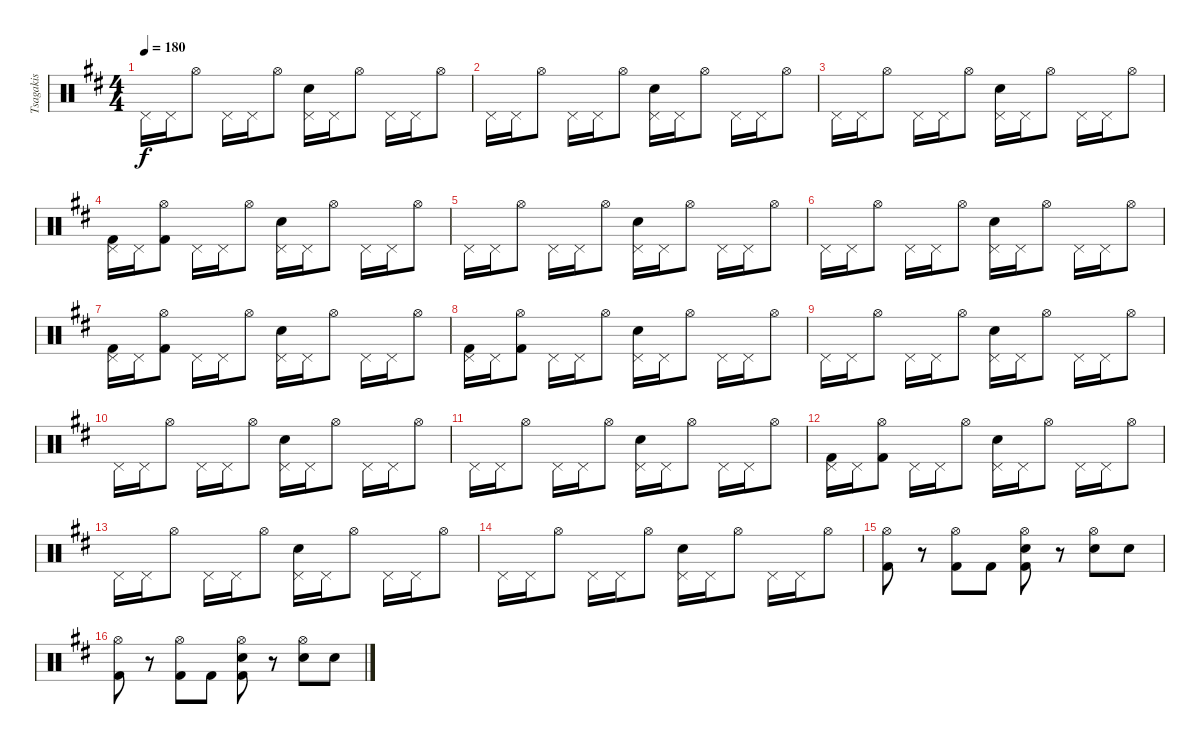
\track ("Tsagakis" "Tsagakis") {instrument percussion}
\staff {score}
\articulation defaults
\ts (4 4)
\tempo 180
\clef neutral
\ks d "Pedal Hi-Hat (hit)".16{dy f} "Pedal Hi-Hat (hit)".16 "Hi-Hat (open)".8 "Pedal Hi-Hat (hit)".16 "Pedal Hi-Hat (hit)".16 "Hi-Hat (open)".8
("Pedal Hi-Hat (hit)" "Electric Snare (hit)").16 "Pedal Hi-Hat (hit)".16 "Hi-Hat (open)".8 "Pedal Hi-Hat (hit)".16 "Pedal Hi-Hat (hit)".16 "Hi-Hat (open)".8 |
"Pedal Hi-Hat (hit)".16 "Pedal Hi-Hat (hit)".16 "Hi-Hat (open)".8 "Pedal Hi-Hat (hit)".16 "Pedal Hi-Hat (hit)".16 "Hi-Hat (open)".8 ("Pedal Hi-Hat (hit)" "Electric Snare (hit)").16 "Pedal Hi-Hat (hit)".16 "Hi-Hat (open)".8 "Pedal Hi-Hat (hit)".16 "Pedal Hi-Hat (hit)".16 "Hi-Hat (open)".8 |
"Pedal Hi-Hat (hit)".16 "Pedal Hi-Hat (hit)".16 "Hi-Hat (open)".8 "Pedal Hi-Hat (hit)".16 "Pedal Hi-Hat (hit)".16 "Hi-Hat (open)".8 ("Pedal Hi-Hat (hit)" "Electric Snare (hit)").16 "Pedal Hi-Hat (hit)".16 "Hi-Hat (open)".8 "Pedal Hi-Hat (hit)".16 "Pedal Hi-Hat (hit)".16 "Hi-Hat (open)".8 |
("Pedal Hi-Hat (hit)" "Kick (hit) 2").16 "Pedal Hi-Hat (hit)".16 ("Hi-Hat (open)" "Kick (hit) 2").8 "Pedal Hi-Hat (hit)".16 "Pedal Hi-Hat (hit)".16 "Hi-Hat (open)".8 ("Pedal Hi-Hat (hit)" "Electric Snare (hit)").16 "Pedal Hi-Hat (hit)".16 "Hi-Hat (open)".8 "Pedal Hi-Hat (hit)".16 "Pedal Hi-Hat (hit)".16 "Hi-Hat (open)".8 |
"Pedal Hi-Hat (hit)".16 "Pedal Hi-Hat (hit)".16 "Hi-Hat (open)".8 "Pedal Hi-Hat (hit)".16 "Pedal Hi-Hat (hit)".16 "Hi-Hat (open)".8 ("Pedal Hi-Hat (hit)" "Electric Snare (hit)").16 "Pedal Hi-Hat (hit)".16 "Hi-Hat (open)".8 "Pedal Hi-Hat (hit)".16 "Pedal Hi-Hat (hit)".16 "Hi-Hat (open)".8 |
"Pedal Hi-Hat (hit)".16 "Pedal Hi-Hat (hit)".16 "Hi-Hat (open)".8 "Pedal Hi-Hat (hit)".16 "Pedal Hi-Hat (hit)".16 "Hi-Hat (open)".8 ("Pedal Hi-Hat (hit)" "Electric Snare (hit)").16 "Pedal Hi-Hat (hit)".16 "Hi-Hat (open)".8 "Pedal Hi-Hat (hit)".16 "Pedal Hi-Hat (hit)".16 "Hi-Hat (open)".8 |
("Pedal Hi-Hat (hit)" "Kick (hit) 2").16 "Pedal Hi-Hat (hit)".16 ("Hi-Hat (open)" "Kick (hit) 2").8 "Pedal Hi-Hat (hit)".16 "Pedal Hi-Hat (hit)".16 "Hi-Hat (open)".8 ("Pedal Hi-Hat (hit)" "Electric Snare (hit)").16 "Pedal Hi-Hat (hit)".16 "Hi-Hat (open)".8 "Pedal Hi-Hat (hit)".16 "Pedal Hi-Hat (hit)".16 "Hi-Hat (open)".8 |
("Pedal Hi-Hat (hit)" "Kick (hit) 2").16 "Pedal Hi-Hat (hit)".16 ("Hi-Hat (open)" "Kick (hit) 2").8 "Pedal Hi-Hat (hit)".16 "Pedal Hi-Hat (hit)".16 "Hi-Hat (open)".8 ("Pedal Hi-Hat (hit)" "Electric Snare (hit)").16 "Pedal Hi-Hat (hit)".16 "Hi-Hat (open)".8 "Pedal Hi-Hat (hit)".16 "Pedal Hi-Hat (hit)".16 "Hi-Hat (open)".8 |
"Pedal Hi-Hat (hit)".16 "Pedal Hi-Hat (hit)".16 "Hi-Hat (open)".8 "Pedal Hi-Hat (hit)".16 "Pedal Hi-Hat (hit)".16 "Hi-Hat (open)".8 ("Pedal Hi-Hat (hit)" "Electric Snare (hit)").16 "Pedal Hi-Hat (hit)".16 "Hi-Hat (open)".8 "Pedal Hi-Hat (hit)".16 "Pedal Hi-Hat (hit)".16 "Hi-Hat (open)".8 |
"Pedal Hi-Hat (hit)".16 "Pedal Hi-Hat (hit)".16 "Hi-Hat (open)".8 "Pedal Hi-Hat (hit)".16 "Pedal Hi-Hat (hit)".16 "Hi-Hat (open)".8 ("Pedal Hi-Hat (hit)" "Electric Snare (hit)").16 "Pedal Hi-Hat (hit)".16 "Hi-Hat (open)".8 "Pedal Hi-Hat (hit)".16 "Pedal Hi-Hat (hit)".16 "Hi-Hat (open)".8 |
"Pedal Hi-Hat (hit)".16 "Pedal Hi-Hat (hit)".16 "Hi-Hat (open)".8 "Pedal Hi-Hat (hit)".16 "Pedal Hi-Hat (hit)".16 "Hi-Hat (open)".8 ("Pedal Hi-Hat (hit)" "Electric Snare (hit)").16 "Pedal Hi-Hat (hit)".16 "Hi-Hat (open)".8 "Pedal Hi-Hat (hit)".16 "Pedal Hi-Hat (hit)".16 "Hi-Hat (open)".8 |
("Pedal Hi-Hat (hit)" "Kick (hit) 2").16 "Pedal Hi-Hat (hit)".16 ("Hi-Hat (open)" "Kick (hit) 2").8 "Pedal Hi-Hat (hit)".16 "Pedal Hi-Hat (hit)".16 "Hi-Hat (open)".8 ("Pedal Hi-Hat (hit)" "Electric Snare (hit)").16 "Pedal Hi-Hat (hit)".16 "Hi-Hat (open)".8 "Pedal Hi-Hat (hit)".16 "Pedal Hi-Hat (hit)".16 "Hi-Hat (open)".8 |
"Pedal Hi-Hat (hit)".16 "Pedal Hi-Hat (hit)".16 "Hi-Hat (open)".8 "Pedal Hi-Hat (hit)".16 "Pedal Hi-Hat (hit)".16 "Hi-Hat (open)".8 ("Pedal Hi-Hat (hit)" "Electric Snare (hit)").16 "Pedal Hi-Hat (hit)".16 "Hi-Hat (open)".8 "Pedal Hi-Hat (hit)".16 "Pedal Hi-Hat (hit)".16 "Hi-Hat (open)".8 |
"Pedal Hi-Hat (hit)".16 "Pedal Hi-Hat (hit)".16 "Hi-Hat (open)".8 "Pedal Hi-Hat (hit)".16 "Pedal Hi-Hat (hit)".16 "Hi-Hat (open)".8 ("Pedal Hi-Hat (hit)" "Electric Snare (hit)").16 "Pedal Hi-Hat (hit)".16 "Hi-Hat (open)".8 "Pedal Hi-Hat (hit)".16 "Pedal Hi-Hat (hit)".16 "Hi-Hat (open)".8 |
("Hi-Hat (open)" "Kick (hit) 2").8 r.8 ("Hi-Hat (open)" "Kick (hit) 2").8 "Kick (hit) 2".8 ("Hi-Hat (open)" "Electric Snare (hit)" "Kick (hit) 2").8 r.8 ("Hi-Hat (open)" "Electric Snare (hit)").8 "Electric Snare (hit)".8 |
("Hi-Hat (open)" "Kick (hit) 2").8 r.8 ("Hi-Hat (open)" "Kick (hit) 2").8 "Kick (hit) 2".8 ("Hi-Hat (open)" "Electric Snare (hit)" "Kick (hit) 2").8 r.8 ("Hi-Hat (open)" "Electric Snare (hit)").8 "Electric Snare (hit)".8
